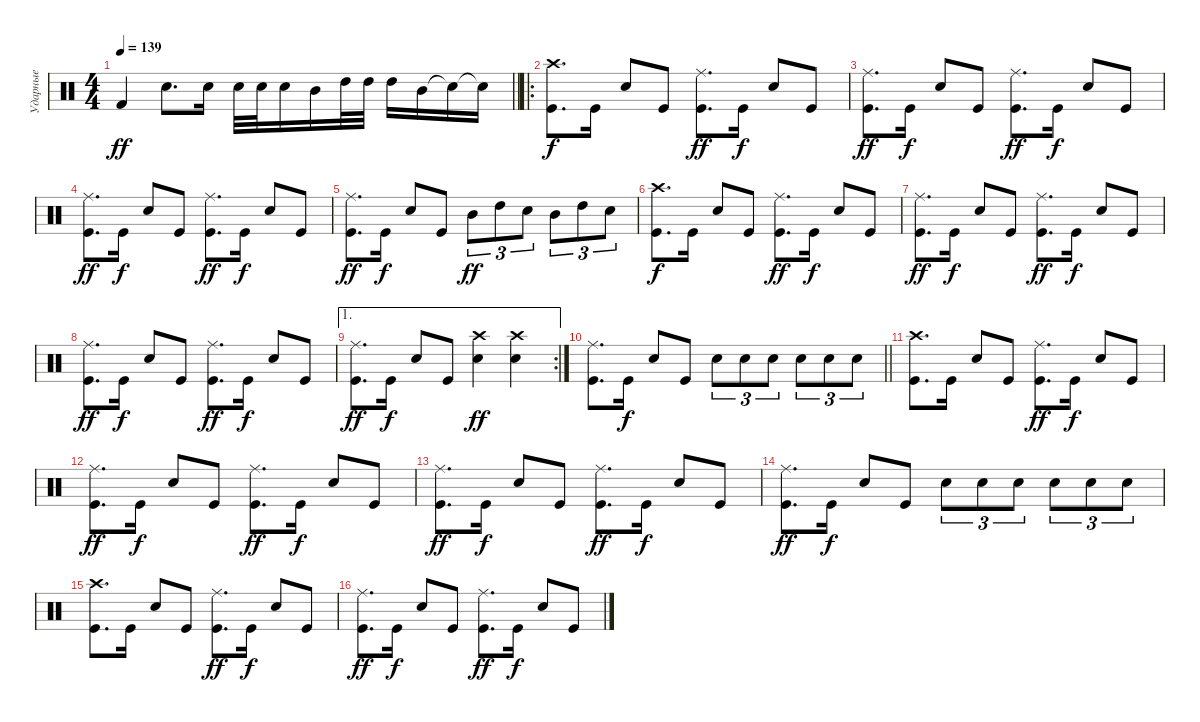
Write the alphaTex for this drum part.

\track ("Ударные" "Ударные") {instrument percussion}
\staff {score}
\articulation defaults
\ts (4 4)
\tempo 139
\clef neutral
\barLineRight lightlight
\ks c "Kick (hit) 2".4{dy ff} "Electric Snare (hit)".8{d} "Electric Snare (hit)".16 "Electric Snare (hit)".32 "Electric Snare (hit)".32 "Electric Snare (hit)".16 "Mid Tom (hit)".16 "High Tom (hit)".32 "High Tom (hit)".32 "High Tom (hit)".16 "Mid Tom (hit)".16 "Snare (hit)"{t}.16 "Snare (hit)"{t}.16
|
\ro
("Kick (hit)" "Crash high (hit)").8{d dy f} "Kick (hit)".16 "Snare (hit) 2".8 "Kick (hit)".8 ("Kick (hit)" "Ride (middle)").8{d dy ff} "Kick (hit)".16{dy f} "Snare (hit) 2".8 "Kick (hit)".8 |
("Kick (hit)" "Ride (middle)").8{d dy ff} "Kick (hit)".16{dy f} "Snare (hit) 2".8 "Kick (hit)".8 ("Kick (hit)" "Ride (middle)").8{d dy ff} "Kick (hit)".16{dy f} "Snare (hit) 2".8 "Kick (hit)".8 |
("Kick (hit)" "Ride (middle)").8{d dy ff} "Kick (hit)".16{dy f} "Snare (hit) 2".8 "Kick (hit)".8 ("Kick (hit)" "Ride (middle)").8{d dy ff} "Kick (hit)".16{dy f} "Snare (hit) 2".8 "Kick (hit)".8 |
("Kick (hit)" "Ride (middle)").8{d dy ff} "Kick (hit)".16{dy f} "Snare (hit) 2".8 "Kick (hit)".8 "Mid Tom (hit)".8{tu (3 2) dy ff} "High Tom (hit)".8{tu (3 2)} "Snare (hit) 2".8{tu (3 2)} "Mid Tom (hit)".8{tu (3 2)} "High Tom (hit)".8{tu (3 2)} "Snare (hit) 2".8{tu (3 2)} |
("Kick (hit)" "Crash high (hit)").8{d dy f} "Kick (hit)".16 "Snare (hit) 2".8 "Kick (hit)".8 ("Kick (hit)" "Ride (middle)").8{d dy ff} "Kick (hit)".16{dy f} "Snare (hit) 2".8 "Kick (hit)".8 |
("Kick (hit)" "Ride (middle)").8{d dy ff} "Kick (hit)".16{dy f} "Snare (hit) 2".8 "Kick (hit)".8 ("Kick (hit)" "Ride (middle)").8{d dy ff} "Kick (hit)".16{dy f} "Snare (hit) 2".8 "Kick (hit)".8 |
("Kick (hit)" "Ride (middle)").8{d dy ff} "Kick (hit)".16{dy f} "Snare (hit) 2".8 "Kick (hit)".8 ("Kick (hit)" "Ride (middle)").8{d dy ff} "Kick (hit)".16{dy f} "Snare (hit) 2".8 "Kick (hit)".8 |
\ae 1
\rc 2
("Kick (hit)" "Ride (middle)").8{d dy ff} "Kick (hit)".16{dy f} "Snare (hit) 2".8 "Kick (hit)".8 ("Snare (hit) 2" "Crash high (hit)").4{dy ff} ("Snare (hit) 2" "Crash high (hit)").4 |
\barLineRight lightlight
("Kick (hit)" "Ride (middle)").8{d} "Kick (hit)".16{dy f} "Snare (hit) 2".8 "Kick (hit)".8 "Snare (hit) 2".8{tu (3 2)} "Snare (hit) 2".8{tu (3 2)} "Snare (hit) 2".8{tu (3 2)} "Snare (hit) 2".8{tu (3 2)} "Snare (hit) 2".8{tu (3 2)} "Snare (hit) 2".8{tu (3 2)} |
("Kick (hit)" "Crash high (hit)").8{d} "Kick (hit)".16 "Snare (hit) 2".8 "Kick (hit)".8 ("Kick (hit)" "Ride (middle)").8{d dy ff} "Kick (hit)".16{dy f} "Snare (hit) 2".8 "Kick (hit)".8 |
("Kick (hit)" "Ride (middle)").8{d dy ff} "Kick (hit)".16{dy f} "Snare (hit) 2".8 "Kick (hit)".8 ("Kick (hit)" "Ride (middle)").8{d dy ff} "Kick (hit)".16{dy f} "Snare (hit) 2".8 "Kick (hit)".8 |
("Kick (hit)" "Ride (middle)").8{d dy ff} "Kick (hit)".16{dy f} "Snare (hit) 2".8 "Kick (hit)".8 ("Kick (hit)" "Ride (middle)").8{d dy ff} "Kick (hit)".16{dy f} "Snare (hit) 2".8 "Kick (hit)".8 |
("Kick (hit)" "Ride (middle)").8{d dy ff} "Kick (hit)".16{dy f} "Snare (hit) 2".8 "Kick (hit)".8 "Snare (hit) 2".8{tu (3 2)} "Snare (hit) 2".8{tu (3 2)} "Snare (hit) 2".8{tu (3 2)} "Snare (hit) 2".8{tu (3 2)} "Snare (hit) 2".8{tu (3 2)} "Snare (hit) 2".8{tu (3 2)} |
("Kick (hit)" "Crash high (hit)").8{d} "Kick (hit)".16 "Snare (hit) 2".8 "Kick (hit)".8 ("Kick (hit)" "Ride (middle)").8{d dy ff} "Kick (hit)".16{dy f} "Snare (hit) 2".8 "Kick (hit)".8 |
("Kick (hit)" "Ride (middle)").8{d dy ff} "Kick (hit)".16{dy f} "Snare (hit) 2".8 "Kick (hit)".8 ("Kick (hit)" "Ride (middle)").8{d dy ff} "Kick (hit)".16{dy f} "Snare (hit) 2".8 "Kick (hit)".8
